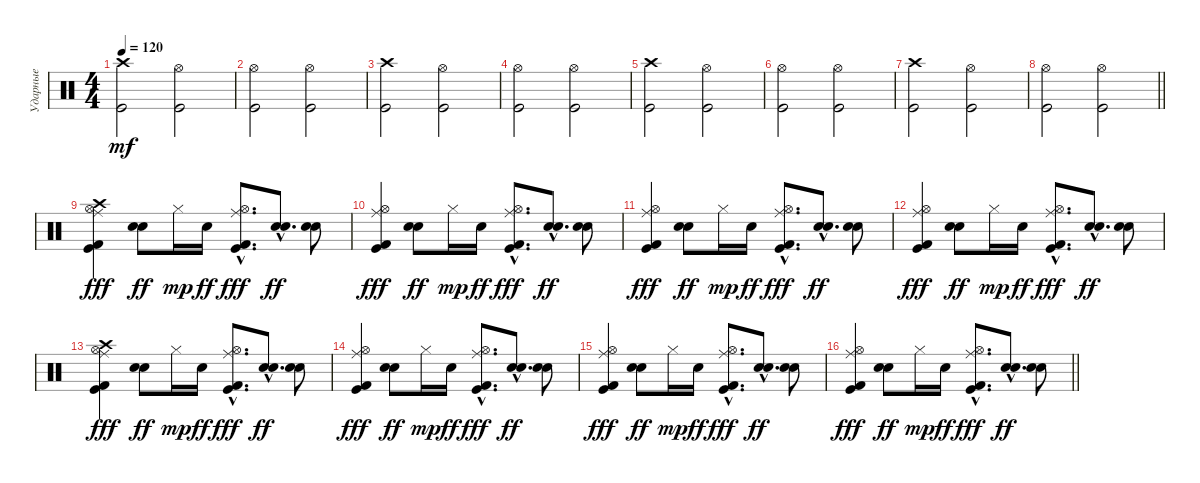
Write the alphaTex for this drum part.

\track ("Ударные" "Ударные") {instrument percussion}
\staff {score}
\articulation defaults
\ts (4 4)
\tempo 120
\clef neutral
\ks c
("Crash high (hit)" "Kick (hit)").2{dy mf} ("Hi-Hat (open)" "Kick (hit)").2 |
("Hi-Hat (open)" "Kick (hit)").2 ("Hi-Hat (open)" "Kick (hit)").2 |
("Crash high (hit)" "Kick (hit)").2 ("Hi-Hat (open)" "Kick (hit)").2 |
("Hi-Hat (open)" "Kick (hit)").2 ("Hi-Hat (open)" "Kick (hit)").2 |
("Crash high (hit)" "Kick (hit)").2 ("Hi-Hat (open)" "Kick (hit)").2 |
("Hi-Hat (open)" "Kick (hit)").2 ("Hi-Hat (open)" "Kick (hit)").2 |
("Crash high (hit)" "Kick (hit)").2 ("Hi-Hat (open)" "Kick (hit)").2 |
\barLineRight lightlight
("Hi-Hat (open)" "Kick (hit)").2 ("Hi-Hat (open)" "Kick (hit)").2 |
("Hi-Hat (open)" "Ride (middle)" "Crash high (hit)" "Kick (hit) 2" "Kick (hit)").4{dy fff} ("Hand Clap (hit)" "Snare (hit) 2").8{dy ff} "Hi-Hat (closed)".16{dy mp} "Snare (hit) 2".16{dy ff} ("Hi-Hat (open)"{hac} "Ride (middle)"{hac} "Kick (hit) 2"{hac} "Kick (hit)"{hac}).8{d dy fff} ("Hand Clap (hit)"{hac} "Snare (hit) 2"{hac}).8{d dy ff} ("Hand Clap (hit)" "Snare (hit) 2").8 |
("Hi-Hat (open)" "Ride (middle)" "Kick (hit) 2" "Kick (hit)").4{dy fff} ("Hand Clap (hit)" "Snare (hit) 2").8{dy ff} "Hi-Hat (closed)".16{dy mp} "Snare (hit) 2".16{dy ff} ("Hi-Hat (open)"{hac} "Ride (middle)"{hac} "Kick (hit) 2"{hac} "Kick (hit)"{hac}).8{d dy fff} ("Hand Clap (hit)"{hac} "Snare (hit) 2"{hac}).8{d dy ff} ("Hand Clap (hit)" "Snare (hit) 2").8 |
("Hi-Hat (open)" "Ride (middle)" "Kick (hit) 2" "Kick (hit)").4{dy fff} ("Hand Clap (hit)" "Snare (hit) 2").8{dy ff} "Hi-Hat (closed)".16{dy mp} "Snare (hit) 2".16{dy ff} ("Hi-Hat (open)"{hac} "Ride (middle)"{hac} "Kick (hit) 2"{hac} "Kick (hit)"{hac}).8{d dy fff} ("Hand Clap (hit)"{hac} "Snare (hit) 2"{hac}).8{d dy ff} ("Hand Clap (hit)" "Snare (hit) 2").8 |
("Hi-Hat (open)" "Ride (middle)" "Kick (hit) 2" "Kick (hit)").4{dy fff} ("Hand Clap (hit)" "Snare (hit) 2").8{dy ff} "Hi-Hat (closed)".16{dy mp} "Snare (hit) 2".16{dy ff} ("Hi-Hat (open)"{hac} "Ride (middle)"{hac} "Kick (hit) 2"{hac} "Kick (hit)"{hac}).8{d dy fff} ("Hand Clap (hit)"{hac} "Snare (hit) 2"{hac}).8{d dy ff} ("Hand Clap (hit)" "Snare (hit) 2").8 |
("Hi-Hat (open)" "Ride (middle)" "Crash high (hit)" "Kick (hit) 2" "Kick (hit)").4{dy fff} ("Hand Clap (hit)" "Snare (hit) 2").8{dy ff} "Hi-Hat (closed)".16{dy mp} "Snare (hit) 2".16{dy ff} ("Hi-Hat (open)"{hac} "Ride (middle)"{hac} "Kick (hit) 2"{hac} "Kick (hit)"{hac}).8{d dy fff} ("Hand Clap (hit)"{hac} "Snare (hit) 2"{hac}).8{d dy ff} ("Hand Clap (hit)" "Snare (hit) 2").8 |
("Hi-Hat (open)" "Ride (middle)" "Kick (hit) 2" "Kick (hit)").4{dy fff} ("Hand Clap (hit)" "Snare (hit) 2").8{dy ff} "Hi-Hat (closed)".16{dy mp} "Snare (hit) 2".16{dy ff} ("Hi-Hat (open)"{hac} "Ride (middle)"{hac} "Kick (hit) 2"{hac} "Kick (hit)"{hac}).8{d dy fff} ("Hand Clap (hit)"{hac} "Snare (hit) 2"{hac}).8{d dy ff} ("Hand Clap (hit)" "Snare (hit) 2").8 |
("Hi-Hat (open)" "Ride (middle)" "Kick (hit) 2" "Kick (hit)").4{dy fff} ("Hand Clap (hit)" "Snare (hit) 2").8{dy ff} "Hi-Hat (closed)".16{dy mp} "Snare (hit) 2".16{dy ff} ("Hi-Hat (open)"{hac} "Ride (middle)"{hac} "Kick (hit) 2"{hac} "Kick (hit)"{hac}).8{d dy fff} ("Hand Clap (hit)"{hac} "Snare (hit) 2"{hac}).8{d dy ff} ("Hand Clap (hit)" "Snare (hit) 2").8 |
\barLineRight lightlight
("Hi-Hat (open)" "Ride (middle)" "Kick (hit) 2" "Kick (hit)").4{dy fff} ("Hand Clap (hit)" "Snare (hit) 2").8{dy ff} "Hi-Hat (closed)".16{dy mp} "Snare (hit) 2".16{dy ff} ("Hi-Hat (open)"{hac} "Ride (middle)"{hac} "Kick (hit) 2"{hac} "Kick (hit)"{hac}).8{d dy fff} ("Hand Clap (hit)"{hac} "Snare (hit) 2"{hac}).8{d dy ff} ("Hand Clap (hit)" "Snare (hit) 2").8
